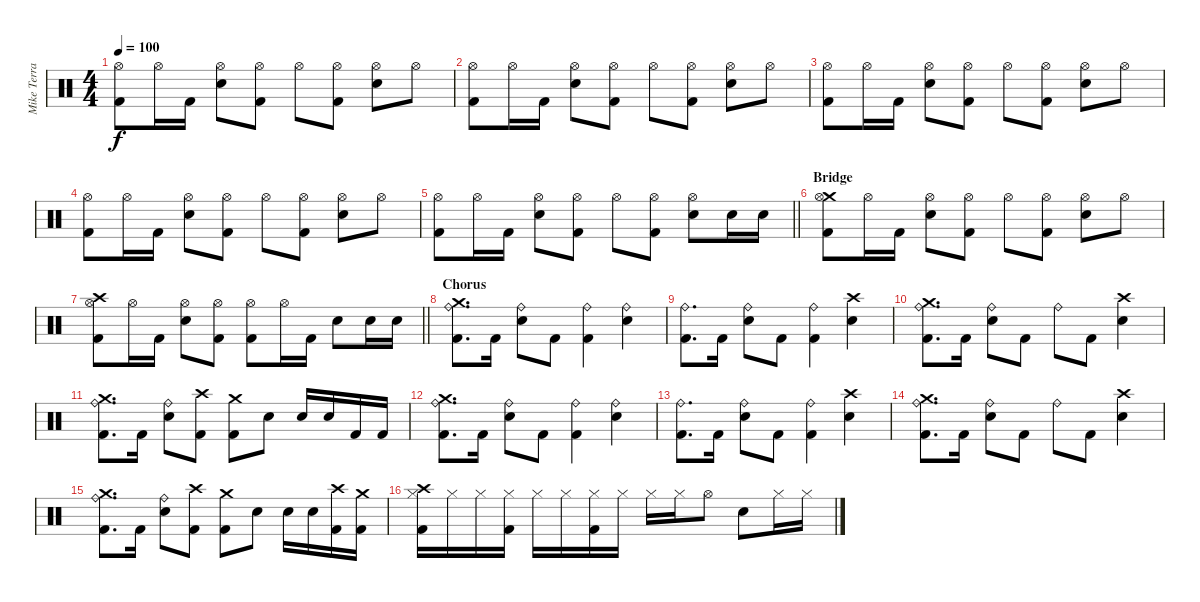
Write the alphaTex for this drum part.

\track ("Mike Terrana" "Mike Terra") {instrument percussion}
\staff {score}
\articulation defaults
\ts (4 4)
\tempo 100
\clef neutral
\ks c
("Hi-Hat (open)" "Kick (hit) 2").8{dy f} "Hi-Hat (open)".16 "Kick (hit) 2".16 ("Hi-Hat (open)" "Snare (hit) 2").8 ("Hi-Hat (open)" "Kick (hit) 2").8 "Hi-Hat (open)".8 ("Hi-Hat (open)" "Kick (hit) 2").8 ("Hi-Hat (open)" "Snare (hit) 2").8 "Hi-Hat (open)".8 |
("Hi-Hat (open)" "Kick (hit) 2").8 "Hi-Hat (open)".16 "Kick (hit) 2".16 ("Hi-Hat (open)" "Snare (hit) 2").8 ("Hi-Hat (open)" "Kick (hit) 2").8 "Hi-Hat (open)".8 ("Hi-Hat (open)" "Kick (hit) 2").8 ("Hi-Hat (open)" "Snare (hit) 2").8 "Hi-Hat (open)".8 |
("Hi-Hat (open)" "Kick (hit) 2").8 "Hi-Hat (open)".16 "Kick (hit) 2".16 ("Hi-Hat (open)" "Snare (hit) 2").8 ("Hi-Hat (open)" "Kick (hit) 2").8 "Hi-Hat (open)".8 ("Hi-Hat (open)" "Kick (hit) 2").8 ("Hi-Hat (open)" "Snare (hit) 2").8 "Hi-Hat (open)".8 |
("Hi-Hat (open)" "Kick (hit) 2").8 "Hi-Hat (open)".16 "Kick (hit) 2".16 ("Hi-Hat (open)" "Snare (hit) 2").8 ("Hi-Hat (open)" "Kick (hit) 2").8 "Hi-Hat (open)".8 ("Hi-Hat (open)" "Kick (hit) 2").8 ("Hi-Hat (open)" "Snare (hit) 2").8 "Hi-Hat (open)".8 |
\barLineRight lightlight
("Hi-Hat (open)" "Kick (hit) 2").8 "Hi-Hat (open)".16 "Kick (hit) 2".16 ("Hi-Hat (open)" "Snare (hit) 2").8 ("Hi-Hat (open)" "Kick (hit) 2").8 "Hi-Hat (open)".8 ("Hi-Hat (open)" "Kick (hit) 2").8 ("Hi-Hat (open)" "Snare (hit) 2").8 "Snare (hit) 2".16 "Snare (hit) 2".16 |
\section ("" "Bridge")
("Crash medium (hit)" "Hi-Hat (open)" "Kick (hit) 2").8 "Hi-Hat (open)".16 "Kick (hit) 2".16 ("Hi-Hat (open)" "Snare (hit) 2").8 ("Hi-Hat (open)" "Kick (hit) 2").8 "Hi-Hat (open)".8 ("Hi-Hat (open)" "Kick (hit) 2").8 ("Hi-Hat (open)" "Snare (hit) 2").8 "Hi-Hat (open)".8 |
\barLineRight lightlight
("Crash high (hit)" "Hi-Hat (open)" "Kick (hit) 2").8 "Hi-Hat (open)".16 "Kick (hit) 2".16 ("Hi-Hat (open)" "Snare (hit) 2").8 ("Hi-Hat (open)" "Kick (hit) 2").8 ("Hi-Hat (open)" "Kick (hit) 2").8 "Hi-Hat (open)".16 "Kick (hit) 2".16 "Snare (hit) 2".8 "Snare (hit) 2".16 "Snare (hit) 2".16 |
\section ("" "Chorus")
("Crash medium (hit)" "Ride (bell)" "Kick (hit) 2").8{d} "Kick (hit) 2".16 ("Ride (bell)" "Snare (hit) 2").8 "Kick (hit) 2".8 ("Ride (bell)" "Kick (hit) 2").4 ("Ride (bell)" "Snare (hit) 2").4 |
("Ride (bell)" "Kick (hit) 2").8{d} "Kick (hit) 2".16 ("Ride (bell)" "Snare (hit) 2").8 "Kick (hit) 2".8 ("Ride (bell)" "Kick (hit) 2").4 ("Crash high (hit)" "Snare (hit) 2").4 |
("Crash medium (hit)" "Ride (bell)" "Kick (hit) 2").8{d} "Kick (hit) 2".16 ("Ride (bell)" "Snare (hit) 2").8 "Kick (hit) 2".8 "Ride (bell)".8 "Kick (hit) 2".8 ("Crash high (hit)" "Snare (hit) 2").4 |
("Crash medium (hit)" "Ride (bell)" "Kick (hit) 2").8{d} "Kick (hit) 2".16 ("Ride (bell)" "Snare (hit) 2").8 ("Crash high (hit)" "Kick (hit) 2").8 ("Crash medium (hit)" "Kick (hit) 2").8 "Snare (hit) 2".8 "Snare (hit) 2".16 "Snare (hit) 2".16 "Kick (hit) 2".16 "Kick (hit) 2".16 |
("Crash medium (hit)" "Ride (bell)" "Kick (hit) 2").8{d} "Kick (hit) 2".16 ("Ride (bell)" "Snare (hit) 2").8 "Kick (hit) 2".8 ("Ride (bell)" "Kick (hit) 2").4 ("Ride (bell)" "Snare (hit) 2").4 |
("Ride (bell)" "Kick (hit) 2").8{d} "Kick (hit) 2".16 ("Ride (bell)" "Snare (hit) 2").8 "Kick (hit) 2".8 ("Ride (bell)" "Kick (hit) 2").4 ("Crash high (hit)" "Snare (hit) 2").4 |
("Crash medium (hit)" "Ride (bell)" "Kick (hit) 2").8{d} "Kick (hit) 2".16 ("Ride (bell)" "Snare (hit) 2").8 "Kick (hit) 2".8 "Ride (bell)".8 "Kick (hit) 2".8 ("Crash high (hit)" "Snare (hit) 2").4 |
("Crash medium (hit)" "Ride (bell)" "Kick (hit) 2").8{d} "Kick (hit) 2".16 ("Ride (bell)" "Snare (hit) 2").8 ("Crash high (hit)" "Kick (hit) 2").8 ("Crash medium (hit)" "Kick (hit) 2").8 "Snare (hit) 2".8 "Snare (hit) 2".16 "Snare (hit) 2".16 ("Crash high (hit)" "Kick (hit) 2").16 ("Crash medium (hit)" "Kick (hit) 2").16 |
("Crash high (hit)" "Hi-Hat (closed)" "Kick (hit) 2").16 "Hi-Hat (closed)".16 "Hi-Hat (closed)".16 ("Hi-Hat (closed)" "Kick (hit) 2").16 "Hi-Hat (closed)".16 "Hi-Hat (closed)".16 ("Hi-Hat (closed)" "Kick (hit) 2").16 "Hi-Hat (closed)".16 "Hi-Hat (closed)".16 "Hi-Hat (closed)".16 "Hi-Hat (open)".8 "Snare (hit) 2".8 "Hi-Hat (closed)".16 "Hi-Hat (closed)".16
